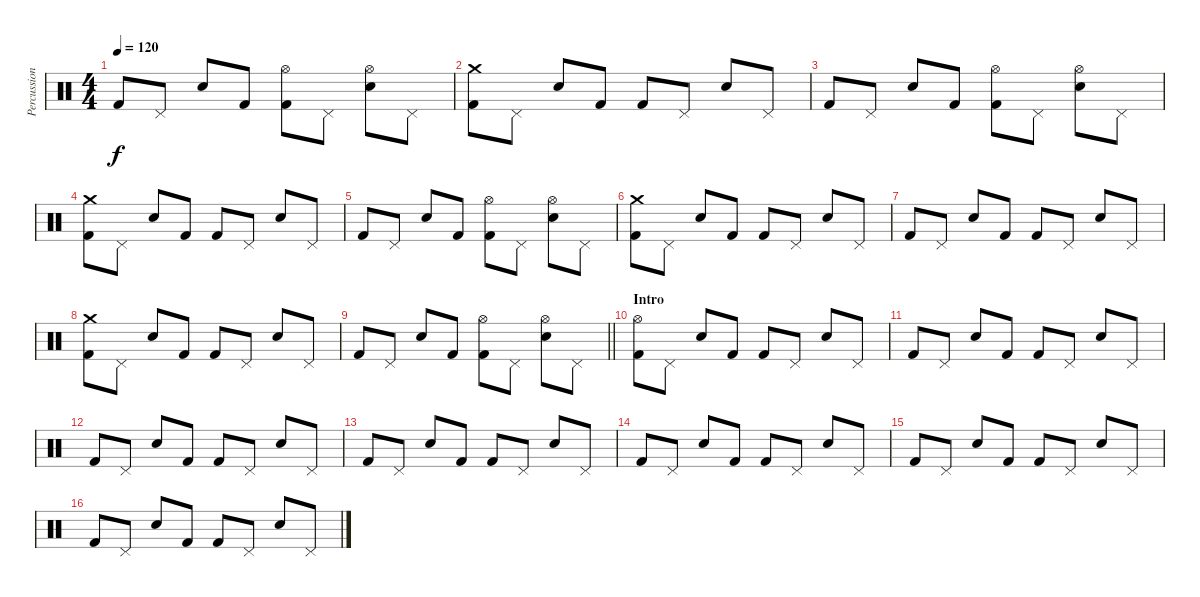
\track ("Percussions" "Percussion") {instrument percussion}
\staff {score}
\articulation defaults
\ts (4 4)
\tempo 120
\clef neutral
\ks c "Kick (hit) 2".8{dy f} "Pedal Hi-Hat (hit)".8 "Snare (hit) 2".8 "Kick (hit) 2".8
("Hi-Hat (open)" "Kick (hit) 2").8 "Pedal Hi-Hat (hit)".8 ("Hi-Hat (open)" "Snare (hit) 2").8 "Pedal Hi-Hat (hit)".8 |
("Crash medium (hit)" "Kick (hit) 2").8 "Pedal Hi-Hat (hit)".8 "Snare (hit) 2".8 "Kick (hit) 2".8 "Kick (hit) 2".8 "Pedal Hi-Hat (hit)".8 "Snare (hit) 2".8 "Pedal Hi-Hat (hit)".8 |
"Kick (hit) 2".8 "Pedal Hi-Hat (hit)".8 "Snare (hit) 2".8 "Kick (hit) 2".8 ("Hi-Hat (open)" "Kick (hit) 2").8 "Pedal Hi-Hat (hit)".8 ("Hi-Hat (open)" "Snare (hit) 2").8 "Pedal Hi-Hat (hit)".8 |
("Crash medium (hit)" "Kick (hit) 2").8 "Pedal Hi-Hat (hit)".8 "Snare (hit) 2".8 "Kick (hit) 2".8 "Kick (hit) 2".8 "Pedal Hi-Hat (hit)".8 "Snare (hit) 2".8 "Pedal Hi-Hat (hit)".8 |
"Kick (hit) 2".8 "Pedal Hi-Hat (hit)".8 "Snare (hit) 2".8 "Kick (hit) 2".8 ("Hi-Hat (open)" "Kick (hit) 2").8 "Pedal Hi-Hat (hit)".8 ("Hi-Hat (open)" "Snare (hit) 2").8 "Pedal Hi-Hat (hit)".8 |
("Crash medium (hit)" "Kick (hit) 2").8 "Pedal Hi-Hat (hit)".8 "Snare (hit) 2".8 "Kick (hit) 2".8 "Kick (hit) 2".8 "Pedal Hi-Hat (hit)".8 "Snare (hit) 2".8 "Pedal Hi-Hat (hit)".8 |
"Kick (hit) 2".8 "Pedal Hi-Hat (hit)".8 "Snare (hit) 2".8 "Kick (hit) 2".8 "Kick (hit) 2".8 "Pedal Hi-Hat (hit)".8 "Snare (hit) 2".8 "Pedal Hi-Hat (hit)".8 |
("Crash medium (hit)" "Kick (hit) 2").8 "Pedal Hi-Hat (hit)".8 "Snare (hit) 2".8 "Kick (hit) 2".8 "Kick (hit) 2".8 "Pedal Hi-Hat (hit)".8 "Snare (hit) 2".8 "Pedal Hi-Hat (hit)".8 |
\barLineRight lightlight "Kick (hit) 2".8 "Pedal Hi-Hat (hit)".8 "Snare (hit) 2".8 "Kick (hit) 2".8
("Hi-Hat (open)" "Kick (hit) 2").8 "Pedal Hi-Hat (hit)".8 ("Hi-Hat (open)" "Snare (hit) 2").8 "Pedal Hi-Hat (hit)".8 |
\section ("" "Intro")
("Hi-Hat (open)" "Kick (hit) 2").8 "Pedal Hi-Hat (hit)".8 "Snare (hit) 2".8 "Kick (hit) 2".8 "Kick (hit) 2".8 "Pedal Hi-Hat (hit)".8 "Snare (hit) 2".8 "Pedal Hi-Hat (hit)".8 |
"Kick (hit) 2".8 "Pedal Hi-Hat (hit)".8 "Snare (hit) 2".8 "Kick (hit) 2".8 "Kick (hit) 2".8 "Pedal Hi-Hat (hit)".8 "Snare (hit) 2".8 "Pedal Hi-Hat (hit)".8 |
"Kick (hit) 2".8 "Pedal Hi-Hat (hit)".8 "Snare (hit) 2".8 "Kick (hit) 2".8 "Kick (hit) 2".8 "Pedal Hi-Hat (hit)".8 "Snare (hit) 2".8 "Pedal Hi-Hat (hit)".8 |
"Kick (hit) 2".8 "Pedal Hi-Hat (hit)".8 "Snare (hit) 2".8 "Kick (hit) 2".8 "Kick (hit) 2".8 "Pedal Hi-Hat (hit)".8 "Snare (hit) 2".8 "Pedal Hi-Hat (hit)".8 |
"Kick (hit) 2".8 "Pedal Hi-Hat (hit)".8 "Snare (hit) 2".8 "Kick (hit) 2".8 "Kick (hit) 2".8 "Pedal Hi-Hat (hit)".8 "Snare (hit) 2".8 "Pedal Hi-Hat (hit)".8 |
"Kick (hit) 2".8 "Pedal Hi-Hat (hit)".8 "Snare (hit) 2".8 "Kick (hit) 2".8 "Kick (hit) 2".8 "Pedal Hi-Hat (hit)".8 "Snare (hit) 2".8 "Pedal Hi-Hat (hit)".8 |
"Kick (hit) 2".8 "Pedal Hi-Hat (hit)".8 "Snare (hit) 2".8 "Kick (hit) 2".8 "Kick (hit) 2".8 "Pedal Hi-Hat (hit)".8 "Snare (hit) 2".8 "Pedal Hi-Hat (hit)".8
